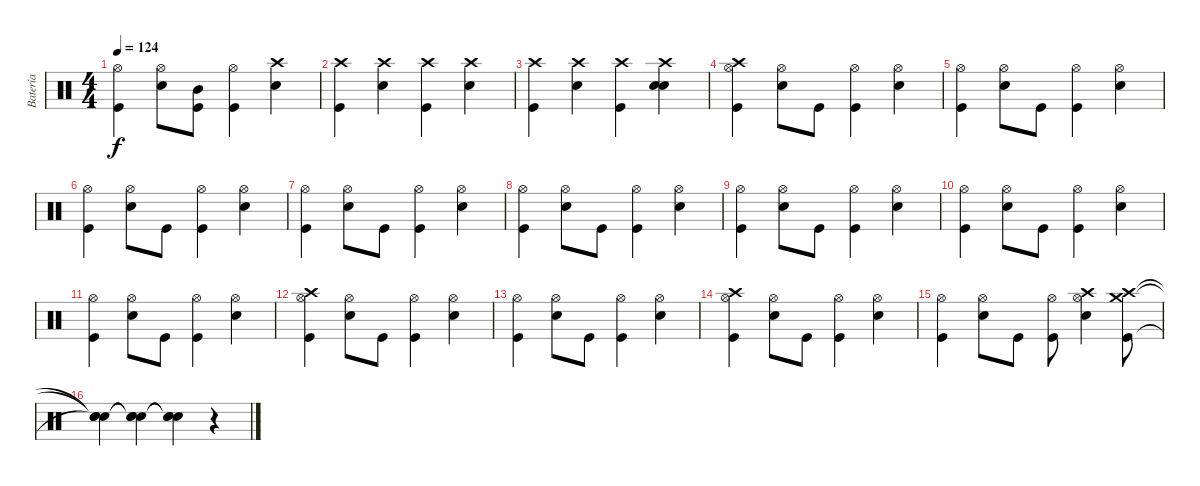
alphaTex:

\track ("Batería" "Batería") {instrument percussion}
\staff {score}
\articulation defaults
\ts (4 4)
\tempo 124
\clef neutral
\ks c
("Hi-Hat (open)" "Kick (hit)").4{dy f} ("Hi-Hat (open)" "Snare (hit) 2").8 ("Mid Tom (hit)" "Kick (hit)").8 ("Hi-Hat (open)" "Kick (hit)").4 ("Crash high (hit)" "Snare (hit) 2").4 |
("Crash high (hit)" "Kick (hit)").4 ("Crash high (hit)" "Snare (hit) 2").4 ("Crash high (hit)" "Kick (hit)").4 ("Crash high (hit)" "Snare (hit) 2").4 |
("Crash high (hit)" "Kick (hit)").4 ("Crash high (hit)" "Snare (hit) 2").4 ("Crash high (hit)" "Kick (hit)").4 ("Crash high (hit)" "Snare (hit) 2" "Snare (hit) 2").4 |
("Crash high (hit)" "Hi-Hat (open)" "Kick (hit)").4 ("Hi-Hat (open)" "Snare (hit) 2").8 "Kick (hit)".8 ("Hi-Hat (open)" "Kick (hit)").4 ("Hi-Hat (open)" "Snare (hit) 2").4 |
("Hi-Hat (open)" "Kick (hit)").4 ("Hi-Hat (open)" "Snare (hit) 2").8 "Kick (hit)".8 ("Hi-Hat (open)" "Kick (hit)").4 ("Hi-Hat (open)" "Snare (hit) 2").4 |
("Hi-Hat (open)" "Kick (hit)").4 ("Hi-Hat (open)" "Snare (hit) 2").8 "Kick (hit)".8 ("Hi-Hat (open)" "Kick (hit)").4 ("Hi-Hat (open)" "Snare (hit) 2").4 |
("Hi-Hat (open)" "Kick (hit)").4 ("Hi-Hat (open)" "Snare (hit) 2").8 "Kick (hit)".8 ("Hi-Hat (open)" "Kick (hit)").4 ("Hi-Hat (open)" "Snare (hit) 2").4 |
("Hi-Hat (open)" "Kick (hit)").4 ("Hi-Hat (open)" "Snare (hit) 2").8 "Kick (hit)".8 ("Hi-Hat (open)" "Kick (hit)").4 ("Hi-Hat (open)" "Snare (hit) 2").4 |
("Hi-Hat (open)" "Kick (hit)").4 ("Hi-Hat (open)" "Snare (hit) 2").8 "Kick (hit)".8 ("Hi-Hat (open)" "Kick (hit)").4 ("Hi-Hat (open)" "Snare (hit) 2").4 |
("Hi-Hat (open)" "Kick (hit)").4 ("Hi-Hat (open)" "Snare (hit) 2").8 "Kick (hit)".8 ("Hi-Hat (open)" "Kick (hit)").4 ("Hi-Hat (open)" "Snare (hit) 2").4 |
("Hi-Hat (open)" "Kick (hit)").4 ("Hi-Hat (open)" "Snare (hit) 2").8 "Kick (hit)".8 ("Hi-Hat (open)" "Kick (hit)").4 ("Hi-Hat (open)" "Snare (hit) 2").4 |
("Crash high (hit)" "Hi-Hat (open)" "Kick (hit)").4 ("Hi-Hat (open)" "Snare (hit) 2").8 "Kick (hit)".8 ("Hi-Hat (open)" "Kick (hit)").4 ("Hi-Hat (open)" "Snare (hit) 2").4 |
("Hi-Hat (open)" "Kick (hit)").4 ("Hi-Hat (open)" "Snare (hit) 2").8 "Kick (hit)".8 ("Hi-Hat (open)" "Kick (hit)").4 ("Hi-Hat (open)" "Snare (hit) 2").4 |
("Crash high (hit)" "Hi-Hat (open)" "Kick (hit)").4 ("Hi-Hat (open)" "Snare (hit) 2").8 "Kick (hit)".8 ("Hi-Hat (open)" "Kick (hit)").4 ("Hi-Hat (open)" "Snare (hit) 2").4 |
("Hi-Hat (open)" "Kick (hit)").4 ("Hi-Hat (open)" "Snare (hit) 2").8 "Kick (hit)".8 ("Hi-Hat (open)" "Kick (hit)").8 ("Crash high (hit)" "Hi-Hat (open)" "Snare (hit) 2").4 ("Crash medium (hit)" "Crash high (hit)" "Kick (hit)").8 |
("Snare (hit)"{t} "Snare (hit)"{t} "Snare (hit)"{t}).4 ("Snare (hit)"{t} "Snare (hit)"{t} "Snare (hit)"{t}).4 ("Snare (hit)"{t} "Snare (hit)"{t} "Snare (hit)"{t}).4 r.4{volume 0}
